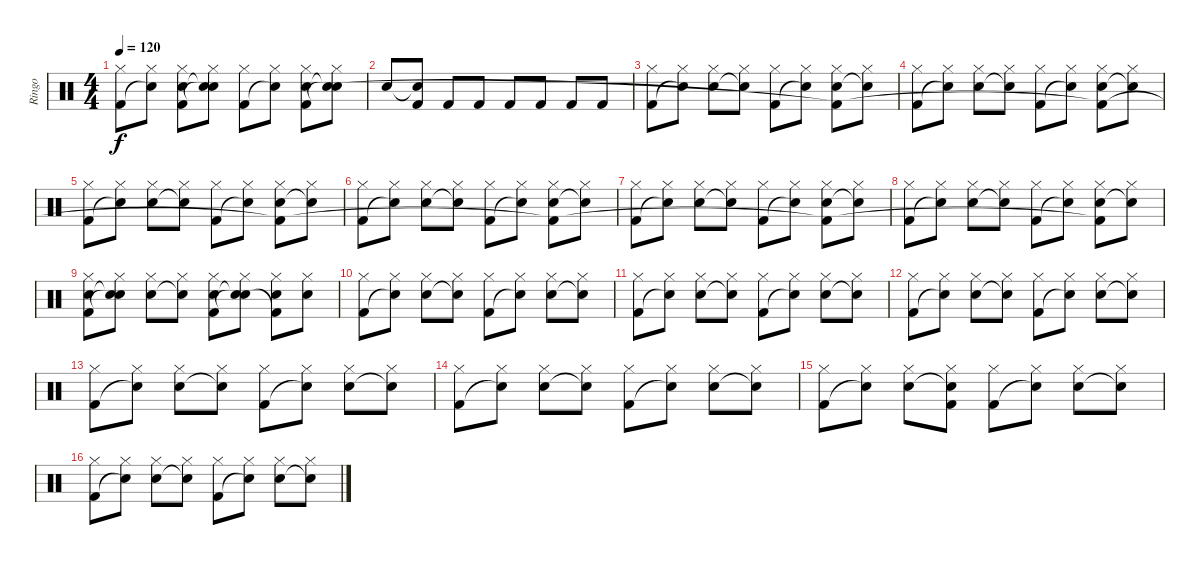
\track ("Ringo" "Ringo") {instrument percussion}
\staff {score}
\articulation defaults
\ts (4 4)
\tempo 120
\clef neutral
\ks c
("Hi-Hat (closed)" "Kick (hit) 2").8{dy f} ("Hi-Hat (closed)" "Snare (hit)"{t}).8 ("Hi-Hat (closed)" "Snare (hit) 2" "Kick (hit) 2").8 ("Hi-Hat (closed)" "Snare (hit)"{t} "Snare (hit)"{t}).8 ("Hi-Hat (closed)" "Kick (hit) 2").8 ("Hi-Hat (closed)" "Snare (hit)"{t}).8 ("Hi-Hat (closed)" "Snare (hit) 2" "Kick (hit) 2").8 ("Hi-Hat (closed)" "Snare (hit)"{t} "Snare (hit)"{t}).8 |
"Snare (hit) 2".8 ("Snare (hit)"{t} "Kick (hit) 2").8 "Kick (hit) 2".8 "Kick (hit) 2".8 "Kick (hit) 2".8 "Kick (hit) 2".8 "Kick (hit) 2".8 "Kick (hit) 2".8 |
("Hi-Hat (closed)" "Kick (hit) 2").8 ("Hi-Hat (closed)" "Snare (hit)"{t}).8 ("Hi-Hat (closed)" "Snare (hit) 2").8 ("Hi-Hat (closed)" "Snare (hit)"{t}).8 ("Hi-Hat (closed)" "Kick (hit) 2").8 ("Hi-Hat (closed)" "Snare (hit)"{t}).8 ("Hi-Hat (closed)" "Snare (hit) 2" "Kick (hit) 2"{t}).8 ("Hi-Hat (closed)" "Snare (hit)"{t}).8 |
("Hi-Hat (closed)" "Kick (hit) 2").8 ("Hi-Hat (closed)" "Snare (hit)"{t}).8 ("Hi-Hat (closed)" "Snare (hit) 2").8 ("Hi-Hat (closed)" "Snare (hit)"{t}).8 ("Hi-Hat (closed)" "Kick (hit) 2").8 ("Hi-Hat (closed)" "Snare (hit)"{t}).8 ("Hi-Hat (closed)" "Snare (hit) 2" "Kick (hit) 2"{t}).8 ("Hi-Hat (closed)" "Snare (hit)"{t}).8 |
("Hi-Hat (closed)" "Kick (hit) 2").8 ("Hi-Hat (closed)" "Snare (hit)"{t}).8 ("Hi-Hat (closed)" "Snare (hit) 2").8 ("Hi-Hat (closed)" "Snare (hit)"{t}).8 ("Hi-Hat (closed)" "Kick (hit) 2").8 ("Hi-Hat (closed)" "Snare (hit)"{t}).8 ("Hi-Hat (closed)" "Snare (hit) 2" "Kick (hit) 2"{t}).8 ("Hi-Hat (closed)" "Snare (hit)"{t}).8 |
("Hi-Hat (closed)" "Kick (hit) 2").8 ("Hi-Hat (closed)" "Snare (hit)"{t}).8 ("Hi-Hat (closed)" "Snare (hit) 2").8 ("Hi-Hat (closed)" "Snare (hit)"{t}).8 ("Hi-Hat (closed)" "Kick (hit) 2").8 ("Hi-Hat (closed)" "Snare (hit)"{t}).8 ("Hi-Hat (closed)" "Snare (hit) 2" "Kick (hit) 2"{t}).8 ("Hi-Hat (closed)" "Snare (hit)"{t}).8 |
("Hi-Hat (closed)" "Kick (hit) 2").8 ("Hi-Hat (closed)" "Snare (hit)"{t}).8 ("Hi-Hat (closed)" "Snare (hit) 2").8 ("Hi-Hat (closed)" "Snare (hit)"{t}).8 ("Hi-Hat (closed)" "Kick (hit) 2").8 ("Hi-Hat (closed)" "Snare (hit)"{t}).8 ("Hi-Hat (closed)" "Snare (hit) 2" "Kick (hit) 2"{t}).8 ("Hi-Hat (closed)" "Snare (hit)"{t}).8 |
("Hi-Hat (closed)" "Kick (hit) 2").8 ("Hi-Hat (closed)" "Snare (hit)"{t}).8 ("Hi-Hat (closed)" "Snare (hit) 2").8 ("Hi-Hat (closed)" "Snare (hit)"{t}).8 ("Hi-Hat (closed)" "Kick (hit) 2").8 ("Hi-Hat (closed)" "Snare (hit)"{t}).8 ("Hi-Hat (closed)" "Snare (hit) 2" "Kick (hit) 2"{t}).8 ("Hi-Hat (closed)" "Snare (hit)"{t}).8 |
("Hi-Hat (closed)" "Snare (hit) 2" "Kick (hit) 2").8 ("Hi-Hat (closed)" "Snare (hit)"{t} "Snare (hit)"{t}).8 ("Hi-Hat (closed)" "Snare (hit) 2").8 ("Hi-Hat (closed)" "Snare (hit)"{t}).8 ("Hi-Hat (closed)" "Snare (hit) 2" "Kick (hit) 2").8 ("Hi-Hat (closed)" "Snare (hit)"{t} "Snare (hit)"{t}).8 ("Hi-Hat (closed)" "Snare (hit) 2" "Kick (hit) 2"{t}).8 ("Hi-Hat (closed)" "Snare (hit) 2").8 |
("Hi-Hat (closed)" "Kick (hit) 2").8 ("Hi-Hat (closed)" "Snare (hit)"{t}).8 ("Hi-Hat (closed)" "Snare (hit) 2").8 ("Hi-Hat (closed)" "Snare (hit)"{t}).8 ("Hi-Hat (closed)" "Kick (hit) 2").8 ("Hi-Hat (closed)" "Snare (hit)"{t}).8 ("Hi-Hat (closed)" "Snare (hit) 2").8 ("Hi-Hat (closed)" "Snare (hit)"{t}).8 |
("Hi-Hat (closed)" "Kick (hit) 2").8 ("Hi-Hat (closed)" "Snare (hit)"{t}).8 ("Hi-Hat (closed)" "Snare (hit) 2").8 ("Hi-Hat (closed)" "Snare (hit)"{t}).8 ("Hi-Hat (closed)" "Kick (hit) 2").8 ("Hi-Hat (closed)" "Snare (hit)"{t}).8 ("Hi-Hat (closed)" "Snare (hit) 2").8 ("Hi-Hat (closed)" "Snare (hit)"{t}).8 |
("Hi-Hat (closed)" "Kick (hit) 2").8 ("Hi-Hat (closed)" "Snare (hit)"{t}).8 ("Hi-Hat (closed)" "Snare (hit) 2").8 ("Hi-Hat (closed)" "Snare (hit)"{t}).8 ("Hi-Hat (closed)" "Kick (hit) 2").8 ("Hi-Hat (closed)" "Snare (hit)"{t}).8 ("Hi-Hat (closed)" "Snare (hit) 2").8 ("Hi-Hat (closed)" "Snare (hit)"{t}).8 |
("Hi-Hat (closed)" "Kick (hit) 2").8 ("Hi-Hat (closed)" "Snare (hit)"{t}).8 ("Hi-Hat (closed)" "Snare (hit) 2").8 ("Hi-Hat (closed)" "Snare (hit)"{t}).8 ("Hi-Hat (closed)" "Kick (hit) 2").8 ("Hi-Hat (closed)" "Snare (hit)"{t}).8 ("Hi-Hat (closed)" "Snare (hit) 2").8 ("Hi-Hat (closed)" "Snare (hit)"{t}).8 |
("Hi-Hat (closed)" "Kick (hit) 2").8 ("Hi-Hat (closed)" "Snare (hit)"{t}).8 ("Hi-Hat (closed)" "Snare (hit) 2").8 ("Hi-Hat (closed)" "Snare (hit)"{t}).8 ("Hi-Hat (closed)" "Kick (hit) 2").8 ("Hi-Hat (closed)" "Snare (hit)"{t}).8 ("Hi-Hat (closed)" "Snare (hit) 2").8 ("Hi-Hat (closed)" "Snare (hit)"{t}).8 |
("Hi-Hat (closed)" "Kick (hit) 2").8 ("Hi-Hat (closed)" "Snare (hit)"{t}).8 ("Hi-Hat (closed)" "Snare (hit) 2").8 ("Hi-Hat (closed)" "Snare (hit)"{t} "Kick (hit) 2").8 ("Hi-Hat (closed)" "Kick (hit) 2").8 ("Hi-Hat (closed)" "Snare (hit)"{t}).8 ("Hi-Hat (closed)" "Snare (hit) 2").8 ("Hi-Hat (closed)" "Snare (hit)"{t}).8 |
("Hi-Hat (closed)" "Kick (hit) 2").8 ("Hi-Hat (closed)" "Snare (hit)"{t}).8 ("Hi-Hat (closed)" "Snare (hit) 2").8 ("Hi-Hat (closed)" "Snare (hit)"{t}).8 ("Hi-Hat (closed)" "Kick (hit) 2").8 ("Hi-Hat (closed)" "Snare (hit)"{t}).8 ("Hi-Hat (closed)" "Snare (hit) 2").8 ("Hi-Hat (closed)" "Snare (hit)"{t}).8
